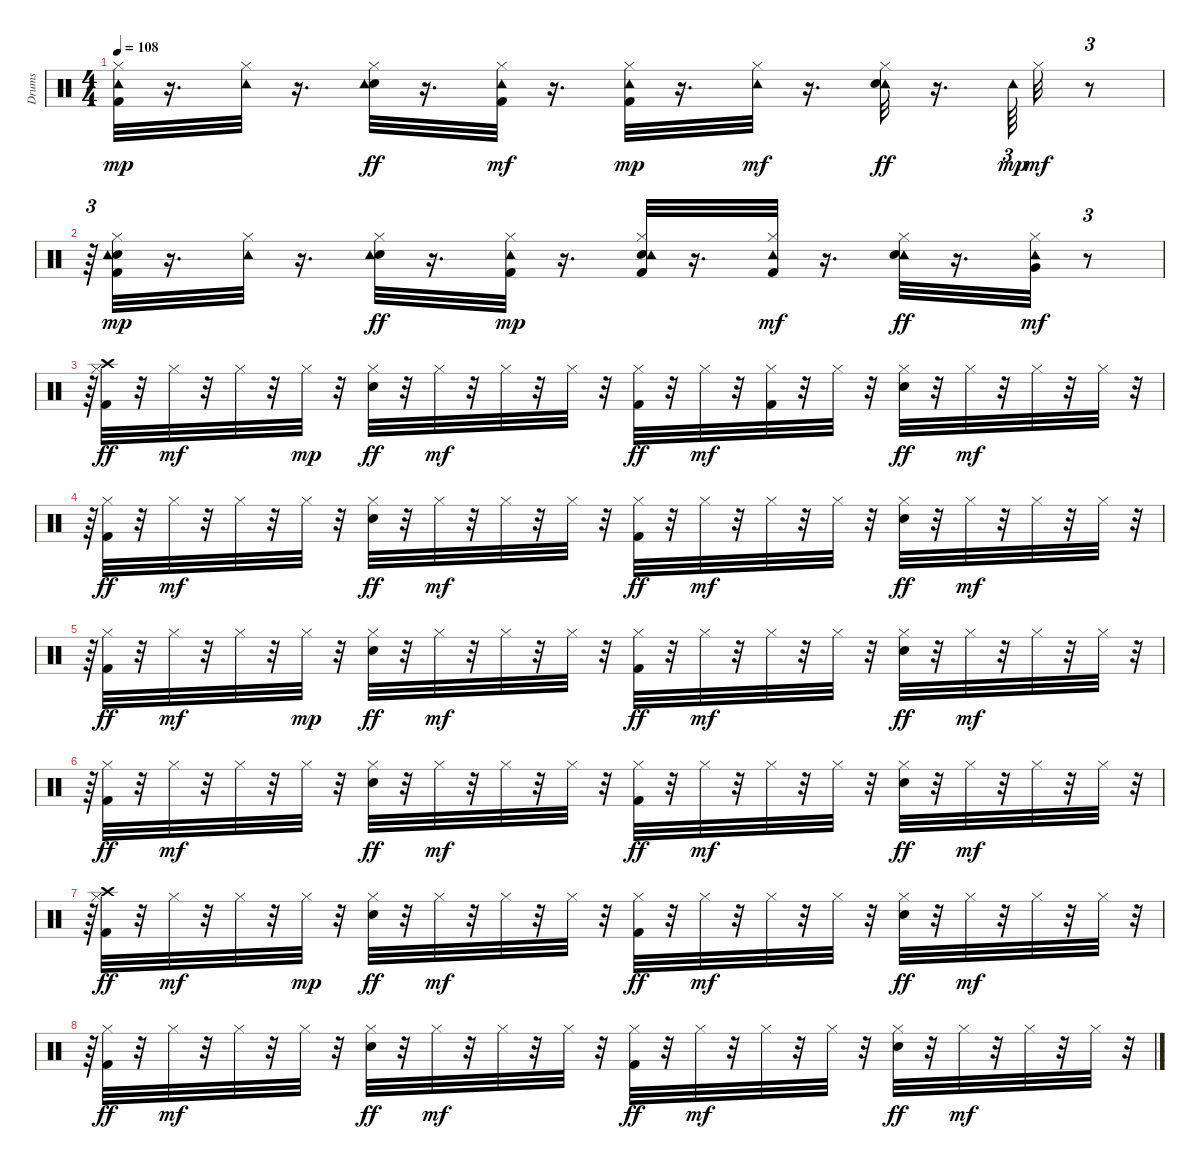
\track ("Drums               " "Drums     ") {instrument percussion}
\staff {score}
\articulation defaults
\ts (4 4)
\tempo 108
\clef neutral
\ks c
("Kick (hit) 2" "Hi-Hat (closed)" "Tambourine (hit)").32{dy mp} r.16{d} ("Hi-Hat (closed)" "Tambourine (hit)").32 r.16{d} ("Snare (hit) 2" "Hi-Hat (closed)" "Tambourine (hit)").32{dy ff} r.16{d} ("Tambourine (hit)" "Kick (hit) 2" "Hi-Hat (closed)").32{dy mf} r.16{d} ("Kick (hit) 2" "Hi-Hat (closed)" "Tambourine (hit)").32{dy mp} r.16{d} ("Tambourine (hit)" "Hi-Hat (closed)").32{dy mf} r.16{d} ("Tambourine (hit)" "Snare (hit) 2" "Hi-Hat (closed)").32{dy ff} r.16{d} "Tambourine (hit)".64{tu (3 2) dy mp} "Hi-Hat (closed)".32{dy mf} r.8{tu (3 2)} |
r.64{tu (3 2)} ("Kick (hit) 2" "Snare (hit) 2" "Hi-Hat (closed)" "Tambourine (hit)").32{dy mp} r.16{d} ("Hi-Hat (closed)" "Tambourine (hit)").32 r.16{d} ("Snare (hit) 2" "Hi-Hat (closed)" "Tambourine (hit)").32{dy ff} r.16{d} ("Kick (hit) 2" "Hi-Hat (closed)" "Tambourine (hit)").32{dy mp} r.16{d} ("Hi-Hat (closed)" "Kick (hit) 2" "Snare (hit) 2" "Tambourine (hit)").32 r.16{d} ("Tambourine (hit)" "Kick (hit) 2" "Hi-Hat (closed)").32{dy mf} r.16{d} ("Tambourine (hit)" "Snare (hit) 2" "Hi-Hat (closed)").32{dy ff} r.16{d} ("Tambourine (hit)" "Hi-Hat (closed)" "Very Low Tom (hit)").32{dy mf} r.8{tu (3 2)} |
r.64{tu (3 2)} ("Kick (hit) 2" "Crash high (hit)" "Hi-Hat (closed)").32{dy ff} r.32 "Hi-Hat (closed)".32{dy mf} r.32 "Hi-Hat (closed)".32 r.32 "Hi-Hat (closed)".32{dy mp} r.32 ("Snare (hit) 2" "Hi-Hat (closed)").32{dy ff} r.32 "Hi-Hat (closed)".32{dy mf} r.32 "Hi-Hat (closed)".32 r.32 "Hi-Hat (closed)".32 r.32 ("Kick (hit) 2" "Hi-Hat (closed)").32{dy ff} r.32 "Hi-Hat (closed)".32{dy mf} r.32 ("Kick (hit) 2" "Hi-Hat (closed)").32 r.32 "Hi-Hat (closed)".32 r.32 ("Snare (hit) 2" "Hi-Hat (closed)").32{dy ff} r.32 "Hi-Hat (closed)".32{dy mf} r.32 "Hi-Hat (closed)".32 r.32 "Hi-Hat (closed)".32 r.32{tu (3 2)} |
r.64{tu (3 2)} ("Kick (hit) 2" "Hi-Hat (closed)").32{dy ff} r.32 "Hi-Hat (closed)".32{dy mf} r.32 "Hi-Hat (closed)".32 r.32 "Hi-Hat (closed)".32 r.32 ("Snare (hit) 2" "Hi-Hat (closed)").32{dy ff} r.32 "Hi-Hat (closed)".32{dy mf} r.32 "Hi-Hat (closed)".32 r.32 "Hi-Hat (closed)".32 r.32 ("Kick (hit) 2" "Hi-Hat (closed)").32{dy ff} r.32 "Hi-Hat (closed)".32{dy mf} r.32 "Hi-Hat (closed)".32 r.32 "Hi-Hat (closed)".32 r.32 ("Snare (hit) 2" "Hi-Hat (closed)").32{dy ff} r.32 "Hi-Hat (closed)".32{dy mf} r.32 "Hi-Hat (closed)".32 r.32 "Hi-Hat (closed)".32 r.32{tu (3 2)} |
r.64{tu (3 2)} ("Kick (hit) 2" "Hi-Hat (closed)").32{dy ff} r.32 "Hi-Hat (closed)".32{dy mf} r.32 "Hi-Hat (closed)".32 r.32 "Hi-Hat (closed)".32{dy mp} r.32 ("Hi-Hat (closed)" "Snare (hit) 2").32{dy ff} r.32 "Hi-Hat (closed)".32{dy mf} r.32 "Hi-Hat (closed)".32 r.32 "Hi-Hat (closed)".32 r.32 ("Kick (hit) 2" "Hi-Hat (closed)").32{dy ff} r.32 "Hi-Hat (closed)".32{dy mf} r.32 "Hi-Hat (closed)".32 r.32 "Hi-Hat (closed)".32 r.32 ("Snare (hit) 2" "Hi-Hat (closed)").32{dy ff} r.32 "Hi-Hat (closed)".32{dy mf} r.32 "Hi-Hat (closed)".32 r.32 "Hi-Hat (closed)".32 r.32{tu (3 2)} |
r.64{tu (3 2)} ("Kick (hit) 2" "Hi-Hat (closed)").32{dy ff} r.32 "Hi-Hat (closed)".32{dy mf} r.32 "Hi-Hat (closed)".32 r.32 "Hi-Hat (closed)".32 r.32 ("Snare (hit) 2" "Hi-Hat (closed)").32{dy ff} r.32 "Hi-Hat (closed)".32{dy mf} r.32 "Hi-Hat (closed)".32 r.32 "Hi-Hat (closed)".32 r.32 ("Kick (hit) 2" "Hi-Hat (closed)").32{dy ff} r.32 "Hi-Hat (closed)".32{dy mf} r.32 "Hi-Hat (closed)".32 r.32 "Hi-Hat (closed)".32 r.32 ("Snare (hit) 2" "Hi-Hat (closed)").32{dy ff} r.32 "Hi-Hat (closed)".32{dy mf} r.32 "Hi-Hat (closed)".32 r.32 "Hi-Hat (closed)".32 r.32{tu (3 2)} |
r.64{tu (3 2)} ("Kick (hit) 2" "Hi-Hat (closed)" "Crash high (hit)").32{dy ff} r.32 "Hi-Hat (closed)".32{dy mf} r.32 "Hi-Hat (closed)".32 r.32 "Hi-Hat (closed)".32{dy mp} r.32 ("Snare (hit) 2" "Hi-Hat (closed)").32{dy ff} r.32 "Hi-Hat (closed)".32{dy mf} r.32 "Hi-Hat (closed)".32 r.32 "Hi-Hat (closed)".32 r.32 ("Kick (hit) 2" "Hi-Hat (closed)").32{dy ff} r.32 "Hi-Hat (closed)".32{dy mf} r.32 "Hi-Hat (closed)".32 r.32 "Hi-Hat (closed)".32 r.32 ("Snare (hit) 2" "Hi-Hat (closed)").32{dy ff} r.32 "Hi-Hat (closed)".32{dy mf} r.32 "Hi-Hat (closed)".32 r.32 "Hi-Hat (closed)".32 r.32{tu (3 2)} |
r.64{tu (3 2)} ("Hi-Hat (closed)" "Kick (hit) 2").32{dy ff} r.32 "Hi-Hat (closed)".32{dy mf} r.32 "Hi-Hat (closed)".32 r.32 "Hi-Hat (closed)".32 r.32 ("Snare (hit) 2" "Hi-Hat (closed)").32{dy ff} r.32 "Hi-Hat (closed)".32{dy mf} r.32 "Hi-Hat (closed)".32 r.32 "Hi-Hat (closed)".32 r.32 ("Kick (hit) 2" "Hi-Hat (closed)").32{dy ff} r.32 "Hi-Hat (closed)".32{dy mf} r.32 "Hi-Hat (closed)".32 r.32 "Hi-Hat (closed)".32 r.32 ("Snare (hit) 2" "Hi-Hat (closed)").32{dy ff} r.32 "Hi-Hat (closed)".32{dy mf} r.32 "Hi-Hat (closed)".32 r.32 "Hi-Hat (closed)".32 r.32{tu (3 2)}
